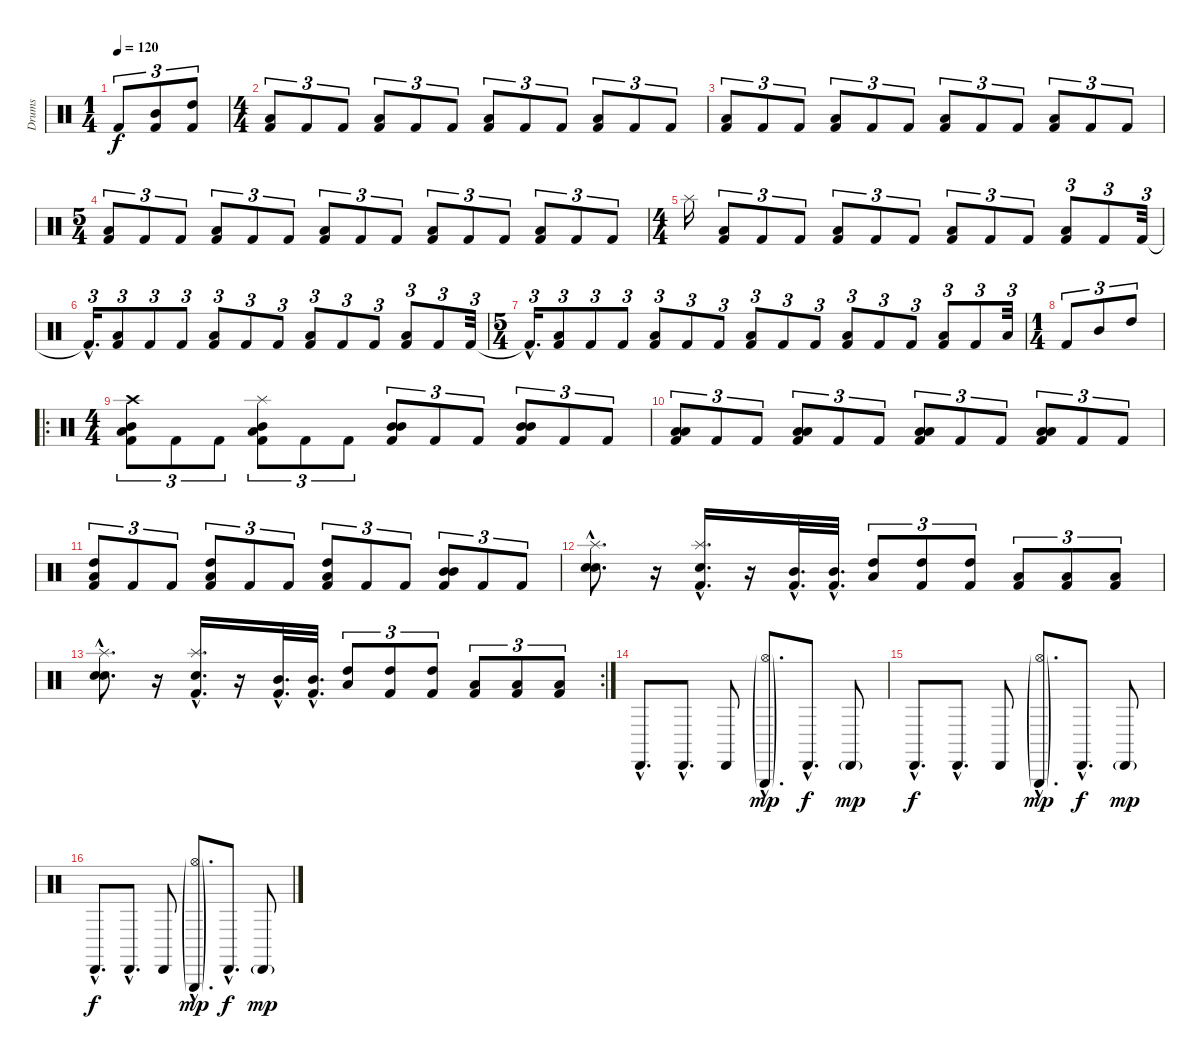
\track ("Drums" "Drums") {instrument percussion}
\staff {score}
\articulation defaults
\ts (1 4)
\tempo 120
\clef neutral
\ks c "Kick (hit) 2".8{tu (3 2) dy f}
("Mid Tom (hit)" "Kick (hit) 2").8{tu (3 2)} ("High Tom (hit)" "Kick (hit) 2").8{tu (3 2)} |
\ts (4 4)
("Low Tom (hit)" "Kick (hit) 2").8{tu (3 2)} "Kick (hit) 2".8{tu (3 2)} "Kick (hit) 2".8{tu (3 2)} ("Low Tom (hit)" "Kick (hit) 2").8{tu (3 2)} "Kick (hit) 2".8{tu (3 2)} "Kick (hit) 2".8{tu (3 2)} ("Low Tom (hit)" "Kick (hit) 2").8{tu (3 2)} "Kick (hit) 2".8{tu (3 2)} "Kick (hit) 2".8{tu (3 2)} ("Low Tom (hit)" "Kick (hit) 2").8{tu (3 2)} "Kick (hit) 2".8{tu (3 2)} "Kick (hit) 2".8{tu (3 2)} |
("Low Tom (hit)" "Kick (hit) 2").8{tu (3 2)} "Kick (hit) 2".8{tu (3 2)} "Kick (hit) 2".8{tu (3 2)} ("Low Tom (hit)" "Kick (hit) 2").8{tu (3 2)} "Kick (hit) 2".8{tu (3 2)} "Kick (hit) 2".8{tu (3 2)} ("Low Tom (hit)" "Kick (hit) 2").8{tu (3 2)} "Kick (hit) 2".8{tu (3 2)} "Kick (hit) 2".8{tu (3 2)} ("Low Tom (hit)" "Kick (hit) 2").8{tu (3 2)} "Kick (hit) 2".8{tu (3 2)} "Kick (hit) 2".8{tu (3 2)} |
\ts (5 4)
("Low Tom (hit)" "Kick (hit) 2").8{tu (3 2)} "Kick (hit) 2".8{tu (3 2)} "Kick (hit) 2".8{tu (3 2)} ("Low Tom (hit)" "Kick (hit) 2").8{tu (3 2)} "Kick (hit) 2".8{tu (3 2)} "Kick (hit) 2".8{tu (3 2)} ("Low Tom (hit)" "Kick (hit) 2").8{tu (3 2)} "Kick (hit) 2".8{tu (3 2)} "Kick (hit) 2".8{tu (3 2)} ("Low Tom (hit)" "Kick (hit) 2").8{tu (3 2)} "Kick (hit) 2".8{tu (3 2)} "Kick (hit) 2".8{tu (3 2)} ("Low Tom (hit)" "Kick (hit) 2").8{tu (3 2)} "Kick (hit) 2".8{tu (3 2)} "Kick (hit) 2".8{tu (3 2)} |
\ts (4 4)
"Splash (hit)".16 ("Low Tom (hit)" "Kick (hit) 2").8{tu (3 2)} "Kick (hit) 2".8{tu (3 2)} "Kick (hit) 2".8{tu (3 2)} ("Low Tom (hit)" "Kick (hit) 2").8{tu (3 2)} "Kick (hit) 2".8{tu (3 2)} "Kick (hit) 2".8{tu (3 2)} ("Low Tom (hit)" "Kick (hit) 2").8{tu (3 2)} "Kick (hit) 2".8{tu (3 2)} "Kick (hit) 2".8{tu (3 2)} ("Low Tom (hit)" "Kick (hit) 2").8{tu (3 2)} "Kick (hit) 2".8{tu (3 2)} "Kick (hit) 2".32{tu (3 2)} |
"Kick (hit) 2"{hac t}.16{d tu (3 2)} ("Low Tom (hit)" "Kick (hit) 2").8{tu (3 2)} "Kick (hit) 2".8{tu (3 2)} "Kick (hit) 2".8{tu (3 2)} ("Low Tom (hit)" "Kick (hit) 2").8{tu (3 2)} "Kick (hit) 2".8{tu (3 2)} "Kick (hit) 2".8{tu (3 2)} ("Low Tom (hit)" "Kick (hit) 2").8{tu (3 2)} "Kick (hit) 2".8{tu (3 2)} "Kick (hit) 2".8{tu (3 2)} ("Low Tom (hit)" "Kick (hit) 2").8{tu (3 2)} "Kick (hit) 2".8{tu (3 2)} "Kick (hit) 2".32{tu (3 2)} |
\ts (5 4)
"Kick (hit) 2"{hac t}.16{d tu (3 2)} ("Low Tom (hit)" "Kick (hit) 2").8{tu (3 2)} "Kick (hit) 2".8{tu (3 2)} "Kick (hit) 2".8{tu (3 2)} ("Low Tom (hit)" "Kick (hit) 2").8{tu (3 2)} "Kick (hit) 2".8{tu (3 2)} "Kick (hit) 2".8{tu (3 2)} ("Low Tom (hit)" "Kick (hit) 2").8{tu (3 2)} "Kick (hit) 2".8{tu (3 2)} "Kick (hit) 2".8{tu (3 2)} ("Low Tom (hit)" "Kick (hit) 2").8{tu (3 2)} "Kick (hit) 2".8{tu (3 2)} "Kick (hit) 2".8{tu (3 2)} ("Low Tom (hit)" "Kick (hit) 2").8{tu (3 2)} "Kick (hit) 2".8{tu (3 2)} "Low Tom (hit)".32{tu (3 2)} |
\ts (1 4)
"Kick (hit) 2".8{tu (3 2)} "Mid Tom (hit)".8{tu (3 2)} "High Tom (hit)".8{tu (3 2)} |
\ro
\ts (4 4)
("Low Tom (hit)" "Mid Tom (hit)" "Crash high (hit)" "Kick (hit) 2").8{tu (3 2)} "Kick (hit) 2".8{tu (3 2)} "Kick (hit) 2".8{tu (3 2)} ("Low Tom (hit)" "Mid Tom (hit)" "Splash (hit)" "Kick (hit) 2").8{tu (3 2)} "Kick (hit) 2".8{tu (3 2)} "Kick (hit) 2".8{tu (3 2)} ("Mid Tom (hit)" "Mid Tom (hit)" "Kick (hit) 2").8{tu (3 2)} "Kick (hit) 2".8{tu (3 2)} "Kick (hit) 2".8{tu (3 2)} ("Mid Tom (hit)" "Mid Tom (hit)" "Kick (hit) 2").8{tu (3 2)} "Kick (hit) 2".8{tu (3 2)} "Kick (hit) 2".8{tu (3 2)} |
("Low Tom (hit)" "Low Tom (hit)" "Kick (hit) 2").8{tu (3 2)} "Kick (hit) 2".8{tu (3 2)} "Kick (hit) 2".8{tu (3 2)} ("Low Tom (hit)" "Low Tom (hit)" "Kick (hit) 2").8{tu (3 2)} "Kick (hit) 2".8{tu (3 2)} "Kick (hit) 2".8{tu (3 2)} ("Low Tom (hit)" "Low Tom (hit)" "Kick (hit) 2").8{tu (3 2)} "Kick (hit) 2".8{tu (3 2)} "Kick (hit) 2".8{tu (3 2)} ("Low Tom (hit)" "Low Tom (hit)" "Kick (hit) 2").8{tu (3 2)} "Kick (hit) 2".8{tu (3 2)} "Kick (hit) 2".8{tu (3 2)} |
("Low Tom (hit)" "High Tom (hit)" "Kick (hit) 2").8{tu (3 2)} "Kick (hit) 2".8{tu (3 2)} "Kick (hit) 2".8{tu (3 2)} ("Low Tom (hit)" "High Tom (hit)" "Kick (hit) 2").8{tu (3 2)} "Kick (hit) 2".8{tu (3 2)} "Kick (hit) 2".8{tu (3 2)} ("Low Tom (hit)" "High Tom (hit)" "Kick (hit) 2").8{tu (3 2)} "Kick (hit) 2".8{tu (3 2)} "Kick (hit) 2".8{tu (3 2)} ("Mid Tom (hit)" "Mid Tom (hit)" "Kick (hit) 2").8{tu (3 2)} "Kick (hit) 2".8{tu (3 2)} "Kick (hit) 2".8{tu (3 2)} |
("Splash (hit)"{hac} "Snare (hit) 2"{hac} "Electric Snare (hit)"{hac}).8{d} r.16 ("Splash (hit)"{hac} "Electric Snare (hit)"{hac} "Kick (hit) 2"{hac}).16{d} r.16 ("Mid Tom (hit)"{hac} "Kick (hit) 2"{hac}).32{d} ("Mid Tom (hit)"{hac} "Kick (hit) 2"{hac}).32{d} ("High Tom (hit)" "Low Tom (hit)").8{tu (3 2)} ("High Tom (hit)" "Kick (hit) 2").8{tu (3 2)} ("High Tom (hit)" "Kick (hit) 2").8{tu (3 2)} ("Low Tom (hit)" "Kick (hit) 2").8{tu (3 2)} ("Low Tom (hit)" "Kick (hit) 2").8{tu (3 2)} ("Low Tom (hit)" "Kick (hit) 2").8{tu (3 2)} |
\rc 2
("Splash (hit)"{hac} "Snare (hit) 2"{hac} "Electric Snare (hit)"{hac}).8{d} r.16 ("Electric Snare (hit)"{hac} "Splash (hit)"{hac} "Kick (hit) 2"{hac}).16{d} r.16 ("Mid Tom (hit)"{hac} "Kick (hit) 2"{hac}).32{d} ("Mid Tom (hit)"{hac} "Kick (hit) 2"{hac}).32{d} ("High Tom (hit)" "Low Tom (hit)").8{tu (3 2)} ("High Tom (hit)" "Kick (hit) 2").8{tu (3 2)} ("High Tom (hit)" "Kick (hit) 2").8{tu (3 2)} ("Low Tom (hit)" "Kick (hit) 2").8{tu (3 2)} ("Low Tom (hit)" "Kick (hit) 2").8{tu (3 2)} ("Low Tom (hit)" "Kick (hit) 2").8{tu (3 2)} |
"Cabasa (hit)"{hac}.8{d} "Cabasa (hit)"{hac}.8{d} "Cabasa (hit)".8 ("Triangle (hit)"{g hac} "Hi-Hat (open)"{g hac}).8{d dy mp} "Cabasa (hit)"{hac}.8{d dy f} "Cabasa (hit)"{g}.8{dy mp} |
"Cabasa (hit)"{hac}.8{d dy f} "Cabasa (hit)"{hac}.8{d} "Cabasa (hit)".8 ("Triangle (hit)"{g hac} "Hi-Hat (open)"{g hac}).8{d dy mp} "Cabasa (hit)"{hac}.8{d dy f} "Cabasa (hit)"{g}.8{dy mp} |
"Cabasa (hit)"{hac}.8{d dy f} "Cabasa (hit)"{hac}.8{d} "Cabasa (hit)".8 ("Triangle (hit)"{g hac} "Hi-Hat (open)"{g hac}).8{d dy mp} "Cabasa (hit)"{hac}.8{d dy f} "Cabasa (hit)"{g}.8{dy mp}
